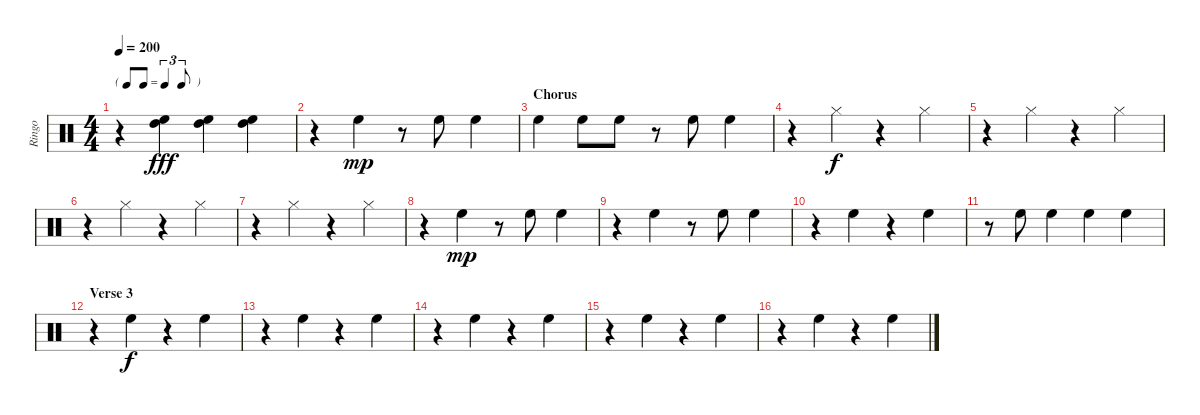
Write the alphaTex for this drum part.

\track ("Ringo" "Ringo") {instrument percussion}
\staff {score}
\articulation defaults
\ts (4 4)
\tf triplet8th
\tempo 200
\clef neutral
\ks c
r.4{dy fff} ("High Floor Tom (hit)" "High Tom (hit)").4 ("High Floor Tom (hit)" "High Tom (hit)").4 ("High Floor Tom (hit)" "High Tom (hit)").4 |
r.4 "High Floor Tom (hit)".4{dy mp} r.8 "High Floor Tom (hit)".8 "High Floor Tom (hit)".4 |
\section ("" "Chorus")
"High Floor Tom (hit)".4 "High Floor Tom (hit)".8 "High Floor Tom (hit)".8 r.8 "High Floor Tom (hit)".8 "High Floor Tom (hit)".4 |
r.4 "Hi-Hat (closed)".4{dy f} r.4 "Hi-Hat (closed)".4 |
r.4 "Hi-Hat (closed)".4 r.4 "Hi-Hat (closed)".4 |
r.4 "Hi-Hat (closed)".4 r.4 "Hi-Hat (closed)".4 |
r.4 "Hi-Hat (closed)".4 r.4 "Hi-Hat (closed)".4 |
r.4 "High Floor Tom (hit)".4{dy mp} r.8 "High Floor Tom (hit)".8 "High Floor Tom (hit)".4 |
r.4 "High Floor Tom (hit)".4 r.8 "High Floor Tom (hit)".8 "High Floor Tom (hit)".4 |
r.4 "High Floor Tom (hit)".4 r.4 "High Floor Tom (hit)".4 |
r.8 "High Floor Tom (hit)".8 "High Floor Tom (hit)".4 "High Floor Tom (hit)".4 "High Floor Tom (hit)".4 |
\section ("" "Verse 3")
r.4 "High Floor Tom (hit)".4{dy f} r.4 "High Floor Tom (hit)".4 |
r.4 "High Floor Tom (hit)".4 r.4 "High Floor Tom (hit)".4 |
r.4 "High Floor Tom (hit)".4 r.4 "High Floor Tom (hit)".4 |
r.4 "High Floor Tom (hit)".4 r.4 "High Floor Tom (hit)".4 |
r.4 "High Floor Tom (hit)".4 r.4 "High Floor Tom (hit)".4
